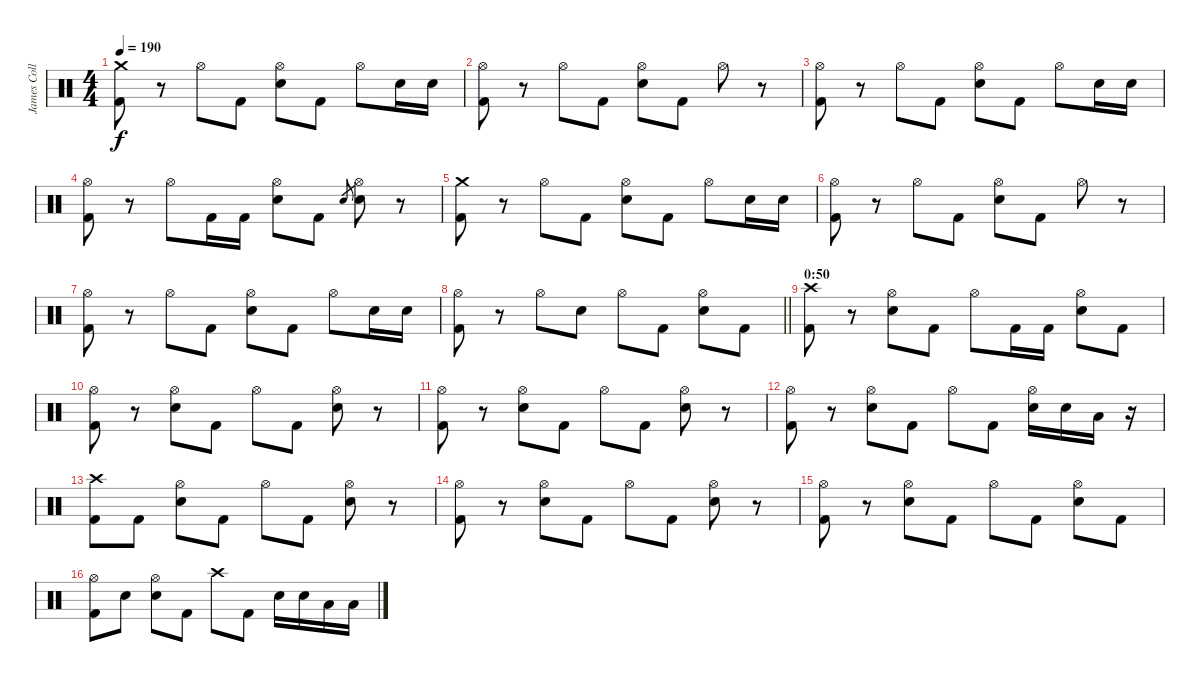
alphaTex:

\track ("James Collins" "James Coll") {instrument percussion}
\staff {score}
\articulation defaults
\ts (4 4)
\tempo 190
\clef neutral
\ks c
("Crash medium (hit)" "Kick (hit) 2").8{dy f} r.8 "Hi-Hat (open)".8 "Kick (hit) 2".8 ("Hi-Hat (open)" "Electric Snare (hit)").8 "Kick (hit) 2".8 "Hi-Hat (open)".8 "Electric Snare (hit)".16 "Electric Snare (hit)".16 |
("Hi-Hat (open)" "Kick (hit) 2").8 r.8 "Hi-Hat (open)".8 "Kick (hit) 2".8 ("Hi-Hat (open)" "Electric Snare (hit)").8 "Kick (hit) 2".8 "Hi-Hat (open)".8 r.8 |
("Hi-Hat (open)" "Kick (hit) 2").8 r.8 "Hi-Hat (open)".8 "Kick (hit) 2".8 ("Hi-Hat (open)" "Electric Snare (hit)").8 "Kick (hit) 2".8 "Hi-Hat (open)".8 "Electric Snare (hit)".16 "Electric Snare (hit)".16 |
("Hi-Hat (open)" "Kick (hit) 2").8 r.8 "Hi-Hat (open)".8 "Kick (hit) 2".16 "Kick (hit) 2".16 ("Hi-Hat (open)" "Electric Snare (hit)").8 "Kick (hit) 2".8 "Electric Snare (hit)".8{gr} ("Hi-Hat (open)" "Electric Snare (hit)").8 r.8 |
("Crash medium (hit)" "Kick (hit) 2").8 r.8 "Hi-Hat (open)".8 "Kick (hit) 2".8 ("Hi-Hat (open)" "Electric Snare (hit)").8 "Kick (hit) 2".8 "Hi-Hat (open)".8 "Electric Snare (hit)".16 "Electric Snare (hit)".16 |
("Hi-Hat (open)" "Kick (hit) 2").8 r.8 "Hi-Hat (open)".8 "Kick (hit) 2".8 ("Hi-Hat (open)" "Electric Snare (hit)").8 "Kick (hit) 2".8 "Hi-Hat (open)".8 r.8 |
("Hi-Hat (open)" "Kick (hit) 2").8 r.8 "Hi-Hat (open)".8 "Kick (hit) 2".8 ("Hi-Hat (open)" "Electric Snare (hit)").8 "Kick (hit) 2".8 "Hi-Hat (open)".8 "Electric Snare (hit)".16 "Electric Snare (hit)".16 |
\barLineRight lightlight
("Hi-Hat (open)" "Kick (hit) 2").8 r.8 "Hi-Hat (open)".8 "Electric Snare (hit)".8 "Hi-Hat (open)".8 "Kick (hit) 2".8 ("Hi-Hat (open)" "Electric Snare (hit)").8 "Kick (hit) 2".8 |
\section ("" "0:50")
("Crash high (hit)" "Kick (hit) 2").8 r.8 ("Hi-Hat (open)" "Electric Snare (hit)").8 "Kick (hit) 2".8 "Hi-Hat (open)".8 "Kick (hit) 2".16 "Kick (hit) 2".16 ("Hi-Hat (open)" "Electric Snare (hit)").8 "Kick (hit) 2".8 |
("Hi-Hat (open)" "Kick (hit) 2").8 r.8 ("Hi-Hat (open)" "Electric Snare (hit)").8 "Kick (hit) 2".8 "Hi-Hat (open)".8 "Kick (hit) 2".8 ("Hi-Hat (open)" "Electric Snare (hit)").8 r.8 |
("Hi-Hat (open)" "Kick (hit) 2").8 r.8 ("Hi-Hat (open)" "Electric Snare (hit)").8 "Kick (hit) 2".8 "Hi-Hat (open)".8 "Kick (hit) 2".8 ("Hi-Hat (open)" "Electric Snare (hit)").8 r.8 |
("Hi-Hat (open)" "Kick (hit) 2").8 r.8 ("Hi-Hat (open)" "Electric Snare (hit)").8 "Kick (hit) 2".8 "Hi-Hat (open)".8 "Kick (hit) 2".8 ("Hi-Hat (open)" "Electric Snare (hit)").16 "Electric Snare (hit)".16 "Low Tom (hit)".16 r.16 |
("Crash high (hit)" "Kick (hit) 2").8 "Kick (hit) 2".8 ("Hi-Hat (open)" "Electric Snare (hit)").8 "Kick (hit) 2".8 "Hi-Hat (open)".8 "Kick (hit) 2".8 ("Hi-Hat (open)" "Electric Snare (hit)").8 r.8 |
("Hi-Hat (open)" "Kick (hit) 2").8 r.8 ("Hi-Hat (open)" "Electric Snare (hit)").8 "Kick (hit) 2".8 "Hi-Hat (open)".8 "Kick (hit) 2".8 ("Hi-Hat (open)" "Electric Snare (hit)").8 r.8 |
("Hi-Hat (open)" "Kick (hit) 2").8 r.8 ("Hi-Hat (open)" "Electric Snare (hit)").8 "Kick (hit) 2".8 "Hi-Hat (open)".8 "Kick (hit) 2".8 ("Hi-Hat (open)" "Electric Snare (hit)").8 "Kick (hit) 2".8 |
("Hi-Hat (open)" "Kick (hit) 2").8 "Electric Snare (hit)".8 ("Hi-Hat (open)" "Electric Snare (hit)").8 "Kick (hit) 2".8 "Crash high (hit)".8 "Kick (hit) 2".8 "Electric Snare (hit)".16 "Electric Snare (hit)".16 "Low Tom (hit)".16 "Low Tom (hit)".16
